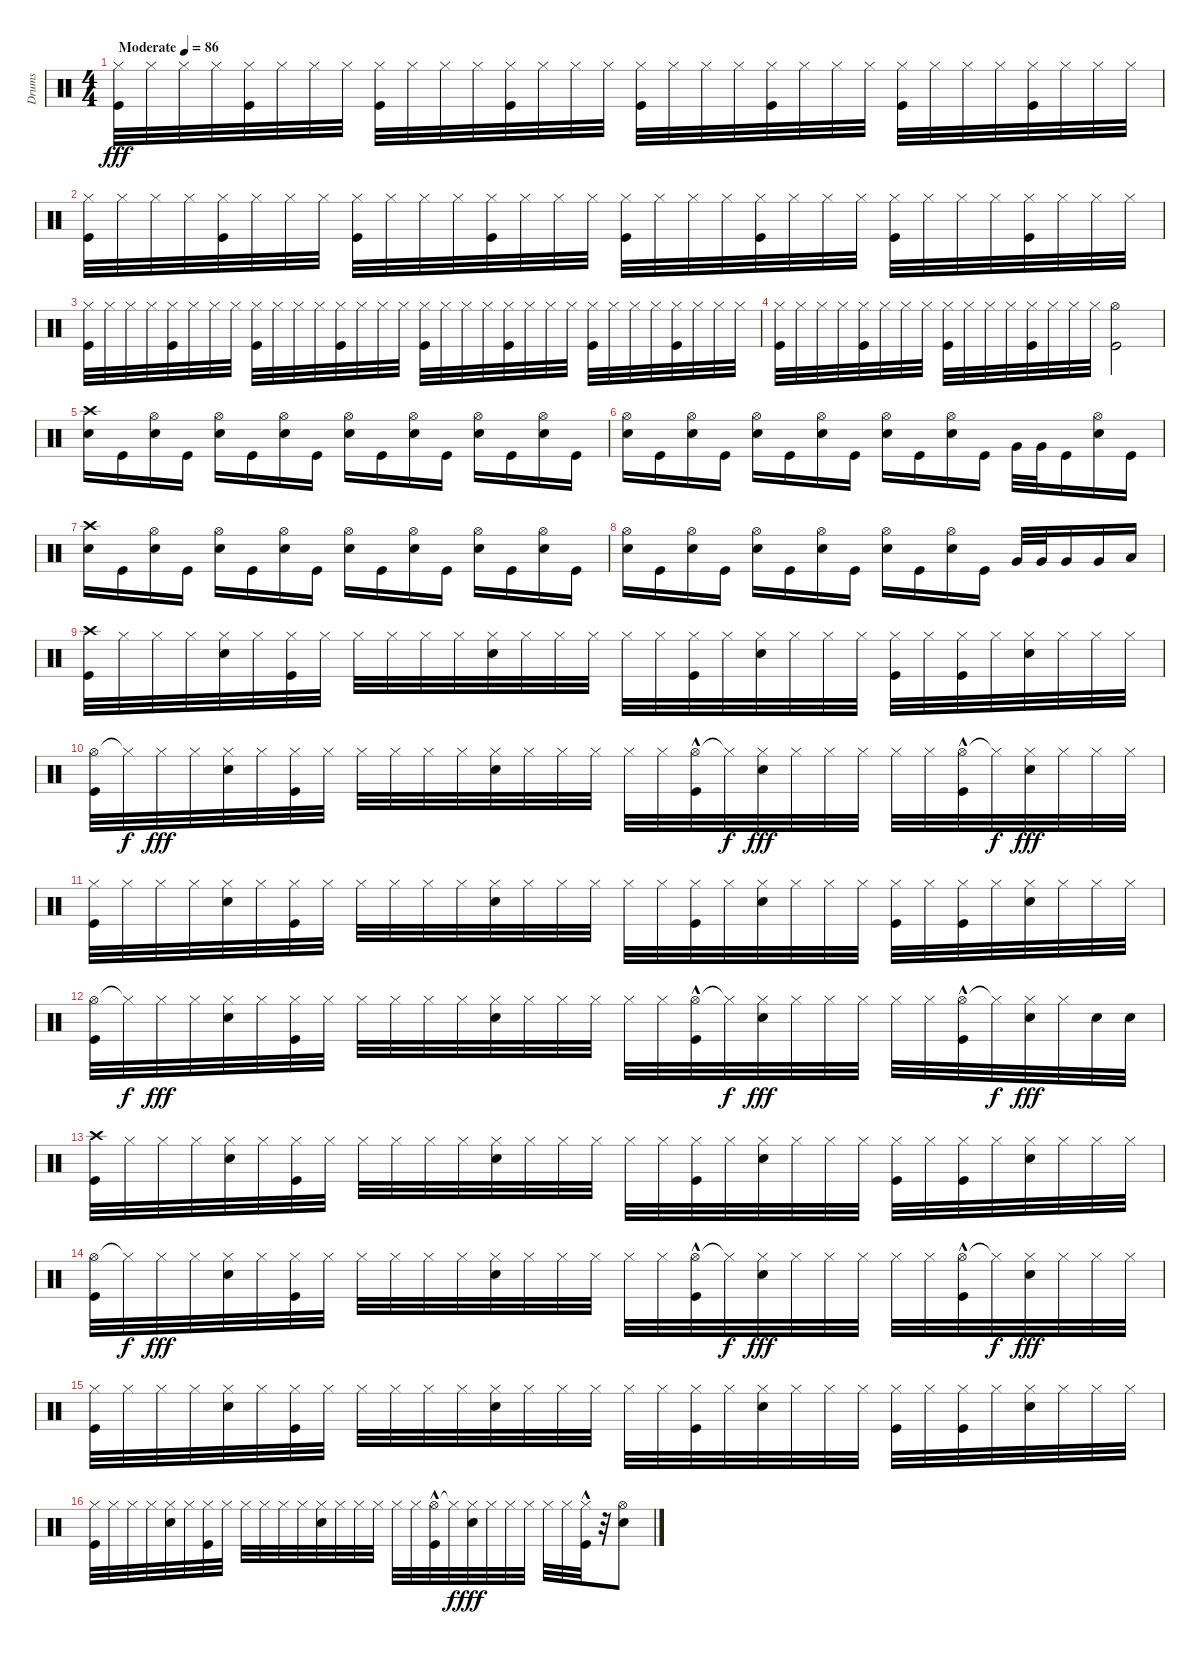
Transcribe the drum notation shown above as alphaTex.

\track ("Drums" "Drums") {instrument percussion}
\staff {score}
\articulation defaults
\ts (4 4)
\tempo (86 "Moderate")
\clef neutral
\ks c
("Hi-Hat (closed)" "Kick (hit)").32{dy fff} "Hi-Hat (closed)".32 "Hi-Hat (closed)".32 "Hi-Hat (closed)".32 ("Hi-Hat (closed)" "Kick (hit)").32 "Hi-Hat (closed)".32 "Hi-Hat (closed)".32 "Hi-Hat (closed)".32 ("Hi-Hat (closed)" "Kick (hit)").32 "Hi-Hat (closed)".32 "Hi-Hat (closed)".32 "Hi-Hat (closed)".32 ("Hi-Hat (closed)" "Kick (hit)").32 "Hi-Hat (closed)".32 "Hi-Hat (closed)".32 "Hi-Hat (closed)".32 ("Hi-Hat (closed)" "Kick (hit)").32 "Hi-Hat (closed)".32 "Hi-Hat (closed)".32 "Hi-Hat (closed)".32 ("Hi-Hat (closed)" "Kick (hit)").32 "Hi-Hat (closed)".32 "Hi-Hat (closed)".32 "Hi-Hat (closed)".32 ("Hi-Hat (closed)" "Kick (hit)").32 "Hi-Hat (closed)".32 "Hi-Hat (closed)".32 "Hi-Hat (closed)".32 ("Hi-Hat (closed)" "Kick (hit)").32 "Hi-Hat (closed)".32 "Hi-Hat (closed)".32 "Hi-Hat (closed)".32 |
("Hi-Hat (closed)" "Kick (hit)").32 "Hi-Hat (closed)".32 "Hi-Hat (closed)".32 "Hi-Hat (closed)".32 ("Hi-Hat (closed)" "Kick (hit)").32 "Hi-Hat (closed)".32 "Hi-Hat (closed)".32 "Hi-Hat (closed)".32 ("Hi-Hat (closed)" "Kick (hit)").32 "Hi-Hat (closed)".32 "Hi-Hat (closed)".32 "Hi-Hat (closed)".32 ("Hi-Hat (closed)" "Kick (hit)").32 "Hi-Hat (closed)".32 "Hi-Hat (closed)".32 "Hi-Hat (closed)".32 ("Hi-Hat (closed)" "Kick (hit)").32 "Hi-Hat (closed)".32 "Hi-Hat (closed)".32 "Hi-Hat (closed)".32 ("Hi-Hat (closed)" "Kick (hit)").32 "Hi-Hat (closed)".32 "Hi-Hat (closed)".32 "Hi-Hat (closed)".32 ("Hi-Hat (closed)" "Kick (hit)").32 "Hi-Hat (closed)".32 "Hi-Hat (closed)".32 "Hi-Hat (closed)".32 ("Hi-Hat (closed)" "Kick (hit)").32 "Hi-Hat (closed)".32 "Hi-Hat (closed)".32 "Hi-Hat (closed)".32 |
("Hi-Hat (closed)" "Kick (hit)").32 "Hi-Hat (closed)".32 "Hi-Hat (closed)".32 "Hi-Hat (closed)".32 ("Hi-Hat (closed)" "Kick (hit)").32 "Hi-Hat (closed)".32 "Hi-Hat (closed)".32 "Hi-Hat (closed)".32 ("Hi-Hat (closed)" "Kick (hit)").32 "Hi-Hat (closed)".32 "Hi-Hat (closed)".32 "Hi-Hat (closed)".32 ("Hi-Hat (closed)" "Kick (hit)").32 "Hi-Hat (closed)".32 "Hi-Hat (closed)".32 "Hi-Hat (closed)".32 ("Hi-Hat (closed)" "Kick (hit)").32 "Hi-Hat (closed)".32 "Hi-Hat (closed)".32 "Hi-Hat (closed)".32 ("Hi-Hat (closed)" "Kick (hit)").32 "Hi-Hat (closed)".32 "Hi-Hat (closed)".32 "Hi-Hat (closed)".32 ("Hi-Hat (closed)" "Kick (hit)").32 "Hi-Hat (closed)".32 "Hi-Hat (closed)".32 "Hi-Hat (closed)".32 ("Hi-Hat (closed)" "Kick (hit)").32 "Hi-Hat (closed)".32 "Hi-Hat (closed)".32 "Hi-Hat (closed)".32 |
("Hi-Hat (closed)" "Kick (hit)").32 "Hi-Hat (closed)".32 "Hi-Hat (closed)".32 "Hi-Hat (closed)".32 ("Hi-Hat (closed)" "Kick (hit)").32 "Hi-Hat (closed)".32 "Hi-Hat (closed)".32 "Hi-Hat (closed)".32 ("Hi-Hat (closed)" "Kick (hit)").32 "Hi-Hat (closed)".32 "Hi-Hat (closed)".32 "Hi-Hat (closed)".32 ("Hi-Hat (closed)" "Kick (hit)").32 "Hi-Hat (closed)".32 "Hi-Hat (closed)".32 "Hi-Hat (closed)".32 ("Hi-Hat (open)" "Kick (hit)").2 |
("Crash high (hit)" "Electric Snare (hit)").16 "Kick (hit)".16 ("Hi-Hat (open)" "Electric Snare (hit)").16 "Kick (hit)".16 ("Hi-Hat (open)" "Electric Snare (hit)").16 "Kick (hit)".16 ("Hi-Hat (open)" "Electric Snare (hit)").16 "Kick (hit)".16 ("Hi-Hat (open)" "Electric Snare (hit)").16 "Kick (hit)".16 ("Hi-Hat (open)" "Electric Snare (hit)").16 "Kick (hit)".16 ("Hi-Hat (open)" "Electric Snare (hit)").16 "Kick (hit)".16 ("Hi-Hat (open)" "Electric Snare (hit)").16 "Kick (hit)".16 |
("Hi-Hat (open)" "Electric Snare (hit)").16 "Kick (hit)".16 ("Hi-Hat (open)" "Electric Snare (hit)").16 "Kick (hit)".16 ("Hi-Hat (open)" "Electric Snare (hit)").16 "Kick (hit)".16 ("Hi-Hat (open)" "Electric Snare (hit)").16 "Kick (hit)".16 ("Hi-Hat (open)" "Electric Snare (hit)").16 "Kick (hit)".16 ("Hi-Hat (open)" "Electric Snare (hit)").16 "Kick (hit)".16 "Very Low Tom (hit)".32 "Very Low Tom (hit)".32 "Kick (hit)".16 ("Hi-Hat (open)" "Electric Snare (hit)").16 "Kick (hit)".16 |
("Crash high (hit)" "Electric Snare (hit)").16 "Kick (hit)".16 ("Hi-Hat (open)" "Electric Snare (hit)").16 "Kick (hit)".16 ("Hi-Hat (open)" "Electric Snare (hit)").16 "Kick (hit)".16 ("Hi-Hat (open)" "Electric Snare (hit)").16 "Kick (hit)".16 ("Hi-Hat (open)" "Electric Snare (hit)").16 "Kick (hit)".16 ("Hi-Hat (open)" "Electric Snare (hit)").16 "Kick (hit)".16 ("Hi-Hat (open)" "Electric Snare (hit)").16 "Kick (hit)".16 ("Hi-Hat (open)" "Electric Snare (hit)").16 "Kick (hit)".16 |
("Hi-Hat (open)" "Electric Snare (hit)").16 "Kick (hit)".16 ("Hi-Hat (open)" "Electric Snare (hit)").16 "Kick (hit)".16 ("Hi-Hat (open)" "Electric Snare (hit)").16 "Kick (hit)".16 ("Hi-Hat (open)" "Electric Snare (hit)").16 "Kick (hit)".16 ("Hi-Hat (open)" "Electric Snare (hit)").16 "Kick (hit)".16 ("Hi-Hat (open)" "Electric Snare (hit)").16 "Kick (hit)".16 "Very Low Tom (hit)".32 "Very Low Tom (hit)".32 "Very Low Tom (hit)".16 "Very Low Tom (hit)".16 "Low Floor Tom (hit)".16 |
("Crash high (hit)" "Kick (hit)").32 "Hi-Hat (closed)".32 "Hi-Hat (closed)".32 "Hi-Hat (closed)".32 ("Hi-Hat (closed)" "Electric Snare (hit)").32 "Hi-Hat (closed)".32 ("Hi-Hat (closed)" "Kick (hit)").32 "Hi-Hat (closed)".32 "Hi-Hat (closed)".32 "Hi-Hat (closed)".32 "Hi-Hat (closed)".32 "Hi-Hat (closed)".32 ("Hi-Hat (closed)" "Electric Snare (hit)").32 "Hi-Hat (closed)".32 "Hi-Hat (closed)".32 "Hi-Hat (closed)".32 "Hi-Hat (closed)".32 "Hi-Hat (closed)".32 ("Hi-Hat (closed)" "Kick (hit)").32 "Hi-Hat (closed)".32 ("Hi-Hat (closed)" "Electric Snare (hit)").32 "Hi-Hat (closed)".32 "Hi-Hat (closed)".32 "Hi-Hat (closed)".32 ("Hi-Hat (closed)" "Kick (hit)").32 "Hi-Hat (closed)".32 ("Hi-Hat (closed)" "Kick (hit)").32 "Hi-Hat (closed)".32 ("Hi-Hat (closed)" "Electric Snare (hit)").32 "Hi-Hat (closed)".32 "Hi-Hat (closed)".32 "Hi-Hat (closed)".32 |
("Hi-Hat (open)" "Kick (hit)").32 "Hi-Hat (closed)"{t}.32{dy f} "Hi-Hat (closed)".32{dy fff} "Hi-Hat (closed)".32 ("Hi-Hat (closed)" "Electric Snare (hit)").32 "Hi-Hat (closed)".32 ("Hi-Hat (closed)" "Kick (hit)").32 "Hi-Hat (closed)".32 "Hi-Hat (closed)".32 "Hi-Hat (closed)".32 "Hi-Hat (closed)".32 "Hi-Hat (closed)".32 ("Hi-Hat (closed)" "Electric Snare (hit)").32 "Hi-Hat (closed)".32 "Hi-Hat (closed)".32 "Hi-Hat (closed)".32 "Hi-Hat (closed)".32 "Hi-Hat (closed)".32 ("Hi-Hat (open)"{hac} "Kick (hit)").32 "Hi-Hat (closed)"{t}.32{dy f} ("Hi-Hat (closed)" "Electric Snare (hit)").32{dy fff} "Hi-Hat (closed)".32 "Hi-Hat (closed)".32 "Hi-Hat (closed)".32 "Hi-Hat (closed)".32 "Hi-Hat (closed)".32 ("Hi-Hat (open)"{hac} "Kick (hit)").32 "Hi-Hat (closed)"{t}.32{dy f} ("Hi-Hat (closed)" "Electric Snare (hit)").32{dy fff} "Hi-Hat (closed)".32 "Hi-Hat (closed)".32 "Hi-Hat (closed)".32 |
("Hi-Hat (closed)" "Kick (hit)").32 "Hi-Hat (closed)".32 "Hi-Hat (closed)".32 "Hi-Hat (closed)".32 ("Hi-Hat (closed)" "Electric Snare (hit)").32 "Hi-Hat (closed)".32 ("Hi-Hat (closed)" "Kick (hit)").32 "Hi-Hat (closed)".32 "Hi-Hat (closed)".32 "Hi-Hat (closed)".32 "Hi-Hat (closed)".32 "Hi-Hat (closed)".32 ("Hi-Hat (closed)" "Electric Snare (hit)").32 "Hi-Hat (closed)".32 "Hi-Hat (closed)".32 "Hi-Hat (closed)".32 "Hi-Hat (closed)".32 "Hi-Hat (closed)".32 ("Hi-Hat (closed)" "Kick (hit)").32 "Hi-Hat (closed)".32 ("Hi-Hat (closed)" "Electric Snare (hit)").32 "Hi-Hat (closed)".32 "Hi-Hat (closed)".32 "Hi-Hat (closed)".32 ("Hi-Hat (closed)" "Kick (hit)").32 "Hi-Hat (closed)".32 ("Hi-Hat (closed)" "Kick (hit)").32 "Hi-Hat (closed)".32 ("Hi-Hat (closed)" "Electric Snare (hit)").32 "Hi-Hat (closed)".32 "Hi-Hat (closed)".32 "Hi-Hat (closed)".32 |
("Hi-Hat (open)" "Kick (hit)").32 "Hi-Hat (closed)"{t}.32{dy f} "Hi-Hat (closed)".32{dy fff} "Hi-Hat (closed)".32 ("Hi-Hat (closed)" "Electric Snare (hit)").32 "Hi-Hat (closed)".32 ("Hi-Hat (closed)" "Kick (hit)").32 "Hi-Hat (closed)".32 "Hi-Hat (closed)".32 "Hi-Hat (closed)".32 "Hi-Hat (closed)".32 "Hi-Hat (closed)".32 ("Hi-Hat (closed)" "Electric Snare (hit)").32 "Hi-Hat (closed)".32 "Hi-Hat (closed)".32 "Hi-Hat (closed)".32 "Hi-Hat (closed)".32 "Hi-Hat (closed)".32 ("Hi-Hat (open)"{hac} "Kick (hit)").32 "Hi-Hat (closed)"{t}.32{dy f} ("Hi-Hat (closed)" "Electric Snare (hit)").32{dy fff} "Hi-Hat (closed)".32 "Hi-Hat (closed)".32 "Hi-Hat (closed)".32 "Hi-Hat (closed)".32 "Hi-Hat (closed)".32 ("Hi-Hat (open)"{hac} "Kick (hit)").32 "Hi-Hat (closed)"{t}.32{dy f} ("Hi-Hat (closed)" "Electric Snare (hit)").32{dy fff} "Hi-Hat (closed)".32 "Electric Snare (hit)".32 "Electric Snare (hit)".32 |
("Crash high (hit)" "Kick (hit)").32 "Hi-Hat (closed)".32 "Hi-Hat (closed)".32 "Hi-Hat (closed)".32 ("Hi-Hat (closed)" "Electric Snare (hit)").32 "Hi-Hat (closed)".32 ("Hi-Hat (closed)" "Kick (hit)").32 "Hi-Hat (closed)".32 "Hi-Hat (closed)".32 "Hi-Hat (closed)".32 "Hi-Hat (closed)".32 "Hi-Hat (closed)".32 ("Hi-Hat (closed)" "Electric Snare (hit)").32 "Hi-Hat (closed)".32 "Hi-Hat (closed)".32 "Hi-Hat (closed)".32 "Hi-Hat (closed)".32 "Hi-Hat (closed)".32 ("Hi-Hat (closed)" "Kick (hit)").32 "Hi-Hat (closed)".32 ("Hi-Hat (closed)" "Electric Snare (hit)").32 "Hi-Hat (closed)".32 "Hi-Hat (closed)".32 "Hi-Hat (closed)".32 ("Hi-Hat (closed)" "Kick (hit)").32 "Hi-Hat (closed)".32 ("Hi-Hat (closed)" "Kick (hit)").32 "Hi-Hat (closed)".32 ("Hi-Hat (closed)" "Electric Snare (hit)").32 "Hi-Hat (closed)".32 "Hi-Hat (closed)".32 "Hi-Hat (closed)".32 |
("Hi-Hat (open)" "Kick (hit)").32 "Hi-Hat (closed)"{t}.32{dy f} "Hi-Hat (closed)".32{dy fff} "Hi-Hat (closed)".32 ("Hi-Hat (closed)" "Electric Snare (hit)").32 "Hi-Hat (closed)".32 ("Hi-Hat (closed)" "Kick (hit)").32 "Hi-Hat (closed)".32 "Hi-Hat (closed)".32 "Hi-Hat (closed)".32 "Hi-Hat (closed)".32 "Hi-Hat (closed)".32 ("Hi-Hat (closed)" "Electric Snare (hit)").32 "Hi-Hat (closed)".32 "Hi-Hat (closed)".32 "Hi-Hat (closed)".32 "Hi-Hat (closed)".32 "Hi-Hat (closed)".32 ("Hi-Hat (open)"{hac} "Kick (hit)").32 "Hi-Hat (closed)"{t}.32{dy f} ("Hi-Hat (closed)" "Electric Snare (hit)").32{dy fff} "Hi-Hat (closed)".32 "Hi-Hat (closed)".32 "Hi-Hat (closed)".32 "Hi-Hat (closed)".32 "Hi-Hat (closed)".32 ("Hi-Hat (open)"{hac} "Kick (hit)").32 "Hi-Hat (closed)"{t}.32{dy f} ("Hi-Hat (closed)" "Electric Snare (hit)").32{dy fff} "Hi-Hat (closed)".32 "Hi-Hat (closed)".32 "Hi-Hat (closed)".32 |
("Hi-Hat (closed)" "Kick (hit)").32 "Hi-Hat (closed)".32 "Hi-Hat (closed)".32 "Hi-Hat (closed)".32 ("Hi-Hat (closed)" "Electric Snare (hit)").32 "Hi-Hat (closed)".32 ("Hi-Hat (closed)" "Kick (hit)").32 "Hi-Hat (closed)".32 "Hi-Hat (closed)".32 "Hi-Hat (closed)".32 "Hi-Hat (closed)".32 "Hi-Hat (closed)".32 ("Hi-Hat (closed)" "Electric Snare (hit)").32 "Hi-Hat (closed)".32 "Hi-Hat (closed)".32 "Hi-Hat (closed)".32 "Hi-Hat (closed)".32 "Hi-Hat (closed)".32 ("Hi-Hat (closed)" "Kick (hit)").32 "Hi-Hat (closed)".32 ("Hi-Hat (closed)" "Electric Snare (hit)").32 "Hi-Hat (closed)".32 "Hi-Hat (closed)".32 "Hi-Hat (closed)".32 ("Hi-Hat (closed)" "Kick (hit)").32 "Hi-Hat (closed)".32 ("Hi-Hat (closed)" "Kick (hit)").32 "Hi-Hat (closed)".32 ("Hi-Hat (closed)" "Electric Snare (hit)").32 "Hi-Hat (closed)".32 "Hi-Hat (closed)".32 "Hi-Hat (closed)".32 |
("Hi-Hat (closed)" "Kick (hit)").32 "Hi-Hat (closed)".32 "Hi-Hat (closed)".32 "Hi-Hat (closed)".32 ("Hi-Hat (closed)" "Electric Snare (hit)").32 "Hi-Hat (closed)".32 ("Hi-Hat (closed)" "Kick (hit)").32 "Hi-Hat (closed)".32 "Hi-Hat (closed)".32 "Hi-Hat (closed)".32 "Hi-Hat (closed)".32 "Hi-Hat (closed)".32 ("Hi-Hat (closed)" "Electric Snare (hit)").32 "Hi-Hat (closed)".32 "Hi-Hat (closed)".32 "Hi-Hat (closed)".32 "Hi-Hat (closed)".32 "Hi-Hat (closed)".32 ("Hi-Hat (open)"{hac} "Kick (hit)").32 "Hi-Hat (closed)"{t}.32{dy f} ("Hi-Hat (closed)" "Electric Snare (hit)").32{dy fff} "Hi-Hat (closed)".32 "Hi-Hat (closed)".32 "Hi-Hat (closed)".32 "Hi-Hat (closed)".32 "Hi-Hat (closed)".32 ("Hi-Hat (closed)"{hac} "Kick (hit)").32 r.32 ("Hi-Hat (open)" "Electric Snare (hit)").8
